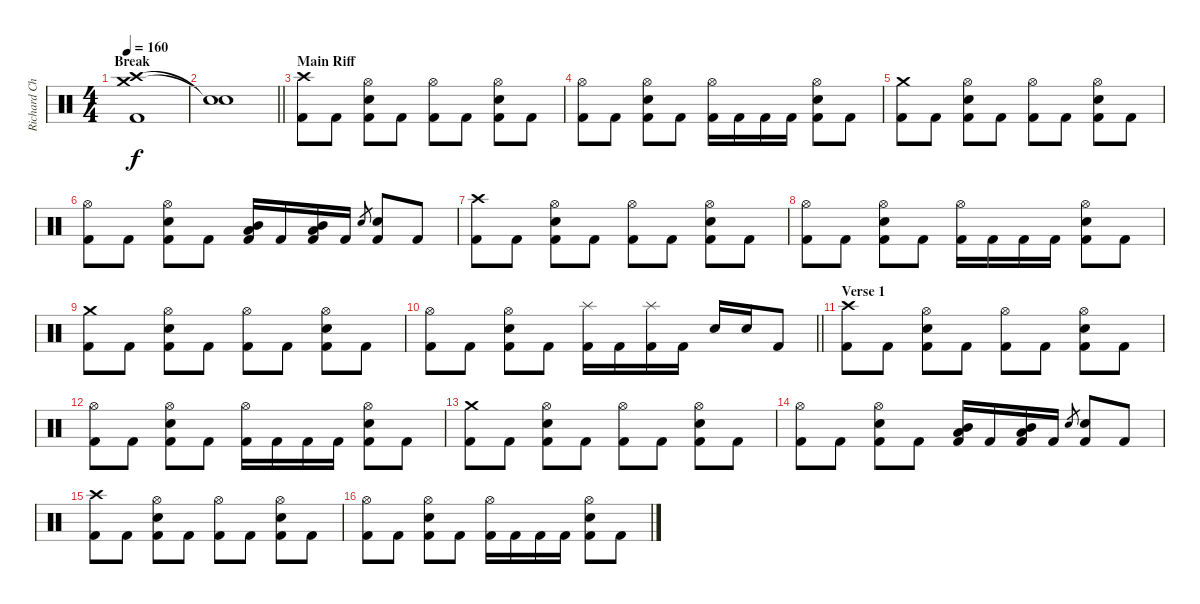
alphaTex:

\track ("Richard Christy" "Richard Ch") {instrument percussion}
\staff {score}
\articulation defaults
\ts (4 4)
\section ("" "Break")
\tempo 160
\clef neutral
\ks c
("Crash high (hit)" "Crash medium (hit)" "Kick (hit) 2").1{dy f} |
\barLineRight lightlight
("Snare (hit)"{t} "Snare (hit)"{t}).1 |
\section ("" "Main Riff")
("Crash high (hit)" "Kick (hit) 2").8 "Kick (hit) 2".8 ("Hi-Hat (open)" "Snare (hit) 2" "Kick (hit) 2").8 "Kick (hit) 2".8 ("Hi-Hat (open)" "Kick (hit) 2").8 "Kick (hit) 2".8 ("Hi-Hat (open)" "Snare (hit) 2" "Kick (hit) 2").8 "Kick (hit) 2".8 |
("Hi-Hat (open)" "Kick (hit) 2").8 "Kick (hit) 2".8 ("Hi-Hat (open)" "Snare (hit) 2" "Kick (hit) 2").8 "Kick (hit) 2".8 ("Hi-Hat (open)" "Kick (hit) 2").16 "Kick (hit) 2".16 "Kick (hit) 2".16 "Kick (hit) 2".16 ("Hi-Hat (open)" "Snare (hit) 2" "Kick (hit) 2").8 "Kick (hit) 2".8 |
("Crash medium (hit)" "Kick (hit) 2").8 "Kick (hit) 2".8 ("Hi-Hat (open)" "Snare (hit) 2" "Kick (hit) 2").8 "Kick (hit) 2".8 ("Hi-Hat (open)" "Kick (hit) 2").8 "Kick (hit) 2".8 ("Hi-Hat (open)" "Snare (hit) 2" "Kick (hit) 2").8 "Kick (hit) 2".8 |
("Hi-Hat (open)" "Kick (hit) 2").8 "Kick (hit) 2".8 ("Hi-Hat (open)" "Snare (hit) 2" "Kick (hit) 2").8 "Kick (hit) 2".8 ("Mid Tom (hit)" "Low Tom (hit)" "Kick (hit) 2").16 "Kick (hit) 2".16 ("Mid Tom (hit)" "Low Tom (hit)" "Kick (hit) 2").16 "Kick (hit) 2".16 "Snare (hit) 2".8{gr} ("Snare (hit) 2" "Kick (hit) 2").8 "Kick (hit) 2".8 |
("Crash high (hit)" "Kick (hit) 2").8 "Kick (hit) 2".8 ("Hi-Hat (open)" "Snare (hit) 2" "Kick (hit) 2").8 "Kick (hit) 2".8 ("Hi-Hat (open)" "Kick (hit) 2").8 "Kick (hit) 2".8 ("Hi-Hat (open)" "Snare (hit) 2" "Kick (hit) 2").8 "Kick (hit) 2".8 |
("Hi-Hat (open)" "Kick (hit) 2").8 "Kick (hit) 2".8 ("Hi-Hat (open)" "Snare (hit) 2" "Kick (hit) 2").8 "Kick (hit) 2".8 ("Hi-Hat (open)" "Kick (hit) 2").16 "Kick (hit) 2".16 "Kick (hit) 2".16 "Kick (hit) 2".16 ("Hi-Hat (open)" "Snare (hit) 2" "Kick (hit) 2").8 "Kick (hit) 2".8 |
("Crash medium (hit)" "Kick (hit) 2").8 "Kick (hit) 2".8 ("Hi-Hat (open)" "Snare (hit) 2" "Kick (hit) 2").8 "Kick (hit) 2".8 ("Hi-Hat (open)" "Kick (hit) 2").8 "Kick (hit) 2".8 ("Hi-Hat (open)" "Snare (hit) 2" "Kick (hit) 2").8 "Kick (hit) 2".8 |
\barLineRight lightlight
("Hi-Hat (open)" "Kick (hit) 2").8 "Kick (hit) 2".8 ("Hi-Hat (open)" "Snare (hit) 2" "Kick (hit) 2").8 "Kick (hit) 2".8 ("Splash (hit)" "Kick (hit) 2").16 "Kick (hit) 2".16 ("Splash (hit)" "Kick (hit) 2").16 "Kick (hit) 2".16 "Snare (hit) 2".16 "Snare (hit) 2".16 "Kick (hit) 2".8 |
\section ("" "Verse 1")
("Crash high (hit)" "Kick (hit) 2").8 "Kick (hit) 2".8 ("Hi-Hat (open)" "Snare (hit) 2" "Kick (hit) 2").8 "Kick (hit) 2".8 ("Hi-Hat (open)" "Kick (hit) 2").8 "Kick (hit) 2".8 ("Hi-Hat (open)" "Snare (hit) 2" "Kick (hit) 2").8 "Kick (hit) 2".8 |
("Hi-Hat (open)" "Kick (hit) 2").8 "Kick (hit) 2".8 ("Hi-Hat (open)" "Snare (hit) 2" "Kick (hit) 2").8 "Kick (hit) 2".8 ("Hi-Hat (open)" "Kick (hit) 2").16 "Kick (hit) 2".16 "Kick (hit) 2".16 "Kick (hit) 2".16 ("Hi-Hat (open)" "Snare (hit) 2" "Kick (hit) 2").8 "Kick (hit) 2".8 |
("Crash medium (hit)" "Kick (hit) 2").8 "Kick (hit) 2".8 ("Hi-Hat (open)" "Snare (hit) 2" "Kick (hit) 2").8 "Kick (hit) 2".8 ("Hi-Hat (open)" "Kick (hit) 2").8 "Kick (hit) 2".8 ("Hi-Hat (open)" "Snare (hit) 2" "Kick (hit) 2").8 "Kick (hit) 2".8 |
("Hi-Hat (open)" "Kick (hit) 2").8 "Kick (hit) 2".8 ("Hi-Hat (open)" "Snare (hit) 2" "Kick (hit) 2").8 "Kick (hit) 2".8 ("Mid Tom (hit)" "Low Tom (hit)" "Kick (hit) 2").16 "Kick (hit) 2".16 ("Mid Tom (hit)" "Low Tom (hit)" "Kick (hit) 2").16 "Kick (hit) 2".16 "Snare (hit) 2".8{gr} ("Snare (hit) 2" "Kick (hit) 2").8 "Kick (hit) 2".8 |
("Crash high (hit)" "Kick (hit) 2").8 "Kick (hit) 2".8 ("Hi-Hat (open)" "Snare (hit) 2" "Kick (hit) 2").8 "Kick (hit) 2".8 ("Hi-Hat (open)" "Kick (hit) 2").8 "Kick (hit) 2".8 ("Hi-Hat (open)" "Snare (hit) 2" "Kick (hit) 2").8 "Kick (hit) 2".8 |
("Hi-Hat (open)" "Kick (hit) 2").8 "Kick (hit) 2".8 ("Hi-Hat (open)" "Snare (hit) 2" "Kick (hit) 2").8 "Kick (hit) 2".8 ("Hi-Hat (open)" "Kick (hit) 2").16 "Kick (hit) 2".16 "Kick (hit) 2".16 "Kick (hit) 2".16 ("Hi-Hat (open)" "Snare (hit) 2" "Kick (hit) 2").8 "Kick (hit) 2".8
